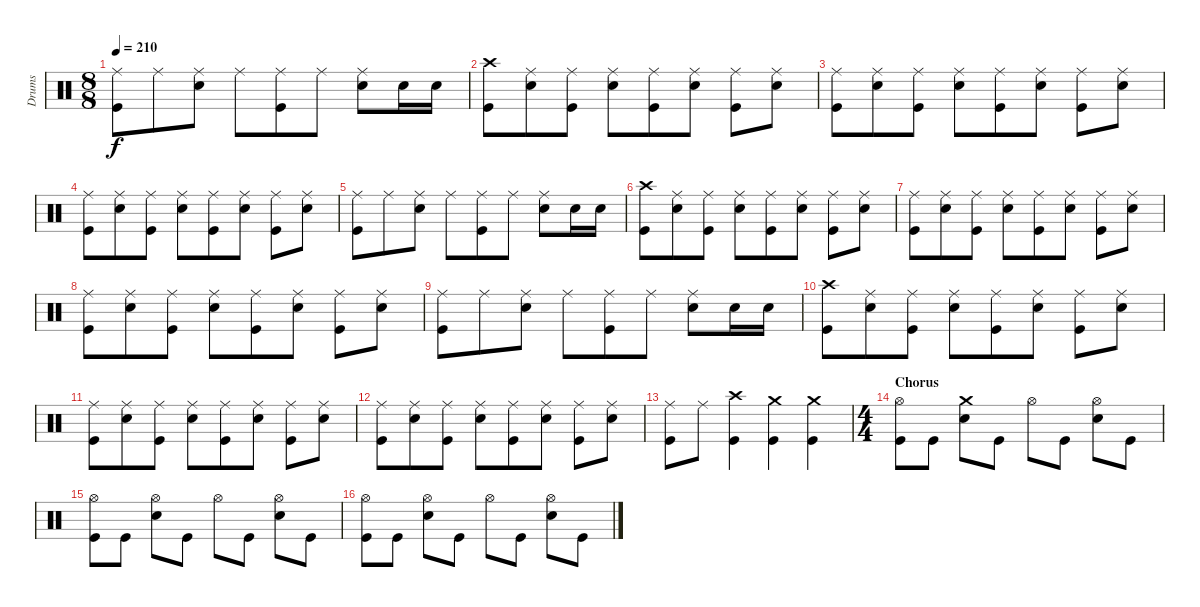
\track ("Drums" "Drums") {instrument percussion}
\staff {score}
\articulation defaults
\ts (8 8)
\tempo 210
\clef neutral
\ks c
("Ride (middle)" "Kick (hit)").8{dy f} "Ride (middle)".8 ("Ride (middle)" "Electric Snare (hit)").8 "Ride (middle)".8 ("Ride (middle)" "Kick (hit)").8 "Ride (middle)".8 ("Ride (middle)" "Electric Snare (hit)").8 "Electric Snare (hit)".16 "Electric Snare (hit)".16 |
("Crash high (hit)" "Kick (hit)").8 ("Ride (middle)" "Electric Snare (hit)").8 ("Ride (middle)" "Kick (hit)").8 ("Ride (middle)" "Electric Snare (hit)").8 ("Ride (middle)" "Kick (hit)").8 ("Ride (middle)" "Electric Snare (hit)").8 ("Ride (middle)" "Kick (hit)").8 ("Ride (middle)" "Electric Snare (hit)").8 |
("Ride (middle)" "Kick (hit)").8 ("Ride (middle)" "Electric Snare (hit)").8 ("Ride (middle)" "Kick (hit)").8 ("Ride (middle)" "Electric Snare (hit)").8 ("Ride (middle)" "Kick (hit)").8 ("Ride (middle)" "Electric Snare (hit)").8 ("Ride (middle)" "Kick (hit)").8 ("Ride (middle)" "Electric Snare (hit)").8 |
("Ride (middle)" "Kick (hit)").8 ("Ride (middle)" "Electric Snare (hit)").8 ("Ride (middle)" "Kick (hit)").8 ("Ride (middle)" "Electric Snare (hit)").8 ("Ride (middle)" "Kick (hit)").8 ("Ride (middle)" "Electric Snare (hit)").8 ("Ride (middle)" "Kick (hit)").8 ("Ride (middle)" "Electric Snare (hit)").8 |
("Ride (middle)" "Kick (hit)").8 "Ride (middle)".8 ("Ride (middle)" "Electric Snare (hit)").8 "Ride (middle)".8 ("Ride (middle)" "Kick (hit)").8 "Ride (middle)".8 ("Ride (middle)" "Electric Snare (hit)").8 "Electric Snare (hit)".16 "Electric Snare (hit)".16 |
("Crash high (hit)" "Kick (hit)").8 ("Ride (middle)" "Electric Snare (hit)").8 ("Ride (middle)" "Kick (hit)").8 ("Ride (middle)" "Electric Snare (hit)").8 ("Ride (middle)" "Kick (hit)").8 ("Ride (middle)" "Electric Snare (hit)").8 ("Ride (middle)" "Kick (hit)").8 ("Ride (middle)" "Electric Snare (hit)").8 |
("Ride (middle)" "Kick (hit)").8 ("Ride (middle)" "Electric Snare (hit)").8 ("Ride (middle)" "Kick (hit)").8 ("Ride (middle)" "Electric Snare (hit)").8 ("Ride (middle)" "Kick (hit)").8 ("Ride (middle)" "Electric Snare (hit)").8 ("Ride (middle)" "Kick (hit)").8 ("Ride (middle)" "Electric Snare (hit)").8 |
("Ride (middle)" "Kick (hit)").8 ("Ride (middle)" "Electric Snare (hit)").8 ("Ride (middle)" "Kick (hit)").8 ("Ride (middle)" "Electric Snare (hit)").8 ("Ride (middle)" "Kick (hit)").8 ("Ride (middle)" "Electric Snare (hit)").8 ("Ride (middle)" "Kick (hit)").8 ("Ride (middle)" "Electric Snare (hit)").8 |
("Ride (middle)" "Kick (hit)").8 "Ride (middle)".8 ("Ride (middle)" "Electric Snare (hit)").8 "Ride (middle)".8 ("Ride (middle)" "Kick (hit)").8 "Ride (middle)".8 ("Ride (middle)" "Electric Snare (hit)").8 "Electric Snare (hit)".16 "Electric Snare (hit)".16 |
("Crash high (hit)" "Kick (hit)").8 ("Ride (middle)" "Electric Snare (hit)").8 ("Ride (middle)" "Kick (hit)").8 ("Ride (middle)" "Electric Snare (hit)").8 ("Ride (middle)" "Kick (hit)").8 ("Ride (middle)" "Electric Snare (hit)").8 ("Ride (middle)" "Kick (hit)").8 ("Ride (middle)" "Electric Snare (hit)").8 |
("Ride (middle)" "Kick (hit)").8 ("Ride (middle)" "Electric Snare (hit)").8 ("Ride (middle)" "Kick (hit)").8 ("Ride (middle)" "Electric Snare (hit)").8 ("Ride (middle)" "Kick (hit)").8 ("Ride (middle)" "Electric Snare (hit)").8 ("Ride (middle)" "Kick (hit)").8 ("Ride (middle)" "Electric Snare (hit)").8 |
("Ride (middle)" "Kick (hit)").8 ("Ride (middle)" "Electric Snare (hit)").8 ("Ride (middle)" "Kick (hit)").8 ("Ride (middle)" "Electric Snare (hit)").8 ("Ride (middle)" "Kick (hit)").8 ("Ride (middle)" "Electric Snare (hit)").8 ("Ride (middle)" "Kick (hit)").8 ("Ride (middle)" "Electric Snare (hit)").8 |
("Ride (middle)" "Kick (hit)").8 "Ride (middle)".8 ("Crash high (hit)" "Kick (hit)").4 ("Crash medium (hit)" "Kick (hit)").4 ("Crash medium (hit)" "Kick (hit)").4 |
\ts (4 4)
\section ("" "Chorus")
("Hi-Hat (open)" "Kick (hit)").8 "Kick (hit)".8 ("Crash medium (hit)" "Electric Snare (hit)").8 "Kick (hit)".8 "Hi-Hat (open)".8 "Kick (hit)".8 ("Hi-Hat (open)" "Electric Snare (hit)").8 "Kick (hit)".8 |
("Hi-Hat (open)" "Kick (hit)").8 "Kick (hit)".8 ("Hi-Hat (open)" "Electric Snare (hit)").8 "Kick (hit)".8 "Hi-Hat (open)".8 "Kick (hit)".8 ("Hi-Hat (open)" "Electric Snare (hit)").8 "Kick (hit)".8 |
("Hi-Hat (open)" "Kick (hit)").8 "Kick (hit)".8 ("Hi-Hat (open)" "Electric Snare (hit)").8 "Kick (hit)".8 "Hi-Hat (open)".8 "Kick (hit)".8 ("Hi-Hat (open)" "Electric Snare (hit)").8 "Kick (hit)".8
